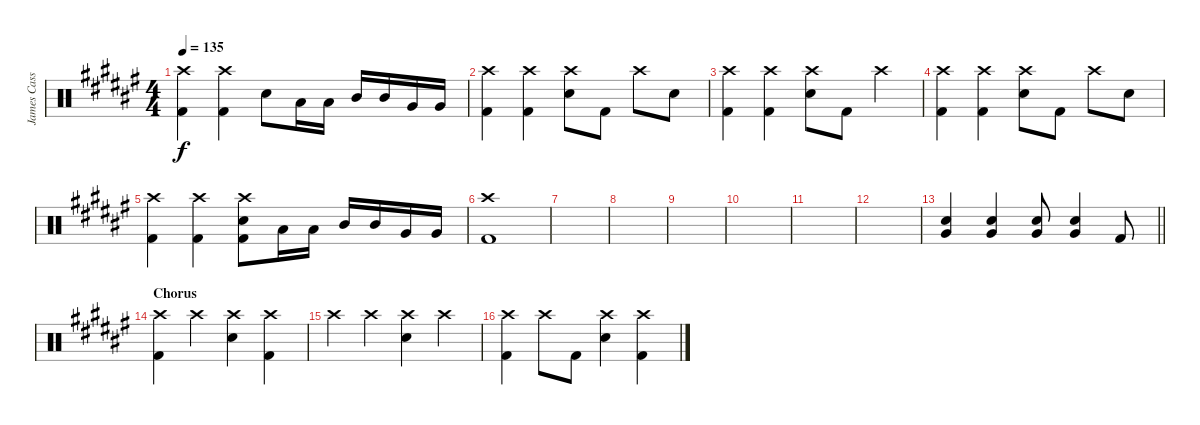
\track ("James Cassells" "James Cass") {instrument percussion}
\staff {score}
\articulation defaults
\ts (4 4)
\tempo 135
\clef neutral
\ks d#minor
("Crash high (hit)" "Kick (hit) 2").4{dy f} ("Crash high (hit)" "Kick (hit) 2").4 "Electric Snare (hit)".8 "Low Tom (hit)".16 "Low Tom (hit)".16 "Mid Tom (hit)".16 "Mid Tom (hit)".16 "Very Low Tom (hit)".16 "Very Low Tom (hit)".16 |
("Crash high (hit)" "Kick (hit) 2").4 ("Crash high (hit)" "Kick (hit) 2").4 ("Crash high (hit)" "Electric Snare (hit)").8 "Kick (hit) 2".8 "Crash high (hit)".8 "Electric Snare (hit)".8 |
("Crash high (hit)" "Kick (hit) 2").4 ("Crash high (hit)" "Kick (hit) 2").4 ("Crash high (hit)" "Electric Snare (hit)").8 "Kick (hit) 2".8 "Crash high (hit)".4 |
("Crash high (hit)" "Kick (hit) 2").4 ("Crash high (hit)" "Kick (hit) 2").4 ("Crash high (hit)" "Electric Snare (hit)").8 "Kick (hit) 2".8 "Crash high (hit)".8 "Electric Snare (hit)".8 |
("Crash high (hit)" "Kick (hit) 2").4 ("Crash high (hit)" "Kick (hit) 2").4 ("Crash high (hit)" "Electric Snare (hit)" "Kick (hit) 2").8 "Low Tom (hit)".16 "Low Tom (hit)".16 "Mid Tom (hit)".16 "Mid Tom (hit)".16 "Very Low Tom (hit)".16 "Very Low Tom (hit)".16 |
("Crash high (hit)" "Kick (hit) 2").1 |
|
|
|
|
|
|
\barLineRight lightlight
("Very Low Tom (hit)" "Electric Snare (hit)").4 ("Very Low Tom (hit)" "Electric Snare (hit)").4 ("Very Low Tom (hit)" "Electric Snare (hit)").8 ("Very Low Tom (hit)" "Electric Snare (hit)").4 "Kick (hit) 2".8 |
\section ("" "Chorus")
("Crash high (hit)" "Kick (hit) 2").4 "Crash high (hit)".4 ("Crash high (hit)" "Electric Snare (hit)").4 ("Crash high (hit)" "Kick (hit) 2").4 |
"Crash high (hit)".4 "Crash high (hit)".4 ("Crash high (hit)" "Electric Snare (hit)").4 "Crash high (hit)".4 |
("Crash high (hit)" "Kick (hit) 2").4 "Crash high (hit)".8 "Kick (hit) 2".8 ("Crash high (hit)" "Electric Snare (hit)").4 ("Crash high (hit)" "Kick (hit) 2").4
